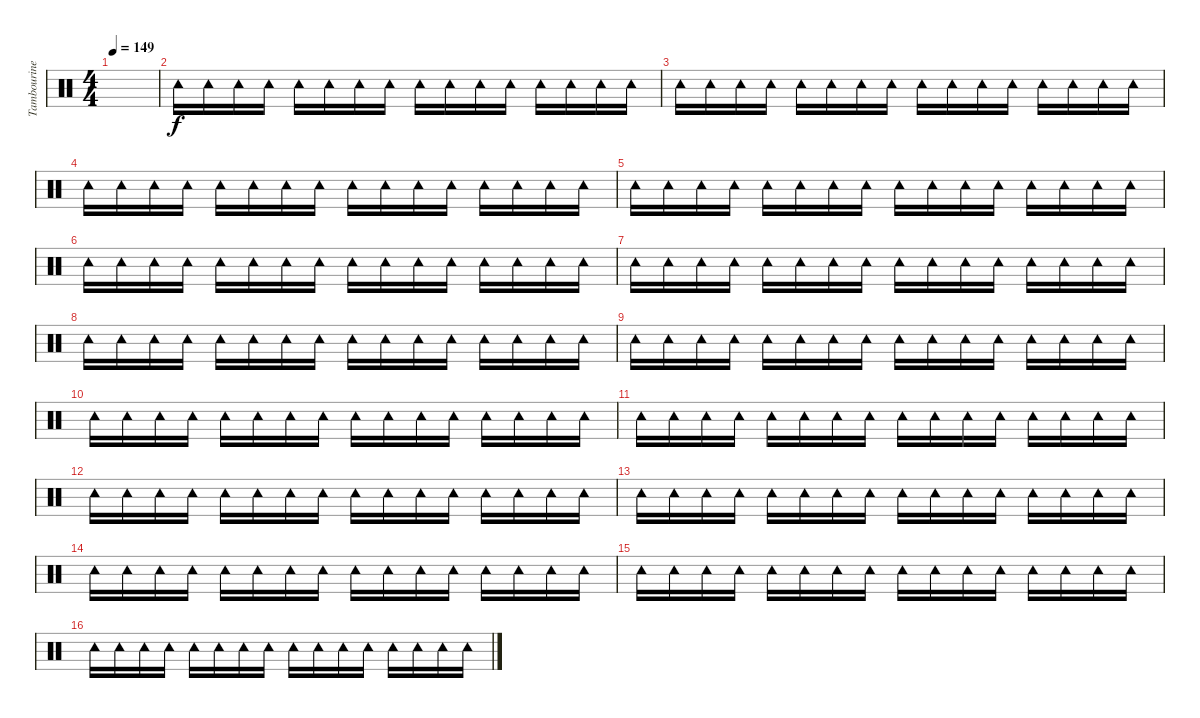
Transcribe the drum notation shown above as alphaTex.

\track ("Tambourine" "Tambourine") {instrument percussion}
\staff {score}
\articulation defaults
\ts (4 4)
\tempo 149
\clef neutral
\ks c
|
"Tambourine (hit)".16 "Tambourine (hit)".16 "Tambourine (hit)".16 "Tambourine (hit)".16 "Tambourine (hit)".16 "Tambourine (hit)".16 "Tambourine (hit)".16 "Tambourine (hit)".16 "Tambourine (hit)".16 "Tambourine (hit)".16 "Tambourine (hit)".16 "Tambourine (hit)".16 "Tambourine (hit)".16 "Tambourine (hit)".16 "Tambourine (hit)".16 "Tambourine (hit)".16 |
"Tambourine (hit)".16 "Tambourine (hit)".16 "Tambourine (hit)".16 "Tambourine (hit)".16 "Tambourine (hit)".16 "Tambourine (hit)".16 "Tambourine (hit)".16 "Tambourine (hit)".16 "Tambourine (hit)".16 "Tambourine (hit)".16 "Tambourine (hit)".16 "Tambourine (hit)".16 "Tambourine (hit)".16 "Tambourine (hit)".16 "Tambourine (hit)".16 "Tambourine (hit)".16 |
"Tambourine (hit)".16 "Tambourine (hit)".16 "Tambourine (hit)".16 "Tambourine (hit)".16 "Tambourine (hit)".16 "Tambourine (hit)".16 "Tambourine (hit)".16 "Tambourine (hit)".16 "Tambourine (hit)".16 "Tambourine (hit)".16 "Tambourine (hit)".16 "Tambourine (hit)".16 "Tambourine (hit)".16 "Tambourine (hit)".16 "Tambourine (hit)".16 "Tambourine (hit)".16 |
"Tambourine (hit)".16 "Tambourine (hit)".16 "Tambourine (hit)".16 "Tambourine (hit)".16 "Tambourine (hit)".16 "Tambourine (hit)".16 "Tambourine (hit)".16 "Tambourine (hit)".16 "Tambourine (hit)".16 "Tambourine (hit)".16 "Tambourine (hit)".16 "Tambourine (hit)".16 "Tambourine (hit)".16 "Tambourine (hit)".16 "Tambourine (hit)".16 "Tambourine (hit)".16 |
"Tambourine (hit)".16 "Tambourine (hit)".16 "Tambourine (hit)".16 "Tambourine (hit)".16 "Tambourine (hit)".16 "Tambourine (hit)".16 "Tambourine (hit)".16 "Tambourine (hit)".16 "Tambourine (hit)".16 "Tambourine (hit)".16 "Tambourine (hit)".16 "Tambourine (hit)".16 "Tambourine (hit)".16 "Tambourine (hit)".16 "Tambourine (hit)".16 "Tambourine (hit)".16 |
"Tambourine (hit)".16 "Tambourine (hit)".16 "Tambourine (hit)".16 "Tambourine (hit)".16 "Tambourine (hit)".16 "Tambourine (hit)".16 "Tambourine (hit)".16 "Tambourine (hit)".16 "Tambourine (hit)".16 "Tambourine (hit)".16 "Tambourine (hit)".16 "Tambourine (hit)".16 "Tambourine (hit)".16 "Tambourine (hit)".16 "Tambourine (hit)".16 "Tambourine (hit)".16 |
"Tambourine (hit)".16 "Tambourine (hit)".16 "Tambourine (hit)".16 "Tambourine (hit)".16 "Tambourine (hit)".16 "Tambourine (hit)".16 "Tambourine (hit)".16 "Tambourine (hit)".16 "Tambourine (hit)".16 "Tambourine (hit)".16 "Tambourine (hit)".16 "Tambourine (hit)".16 "Tambourine (hit)".16 "Tambourine (hit)".16 "Tambourine (hit)".16 "Tambourine (hit)".16 |
"Tambourine (hit)".16 "Tambourine (hit)".16 "Tambourine (hit)".16 "Tambourine (hit)".16 "Tambourine (hit)".16 "Tambourine (hit)".16 "Tambourine (hit)".16 "Tambourine (hit)".16 "Tambourine (hit)".16 "Tambourine (hit)".16 "Tambourine (hit)".16 "Tambourine (hit)".16 "Tambourine (hit)".16 "Tambourine (hit)".16 "Tambourine (hit)".16 "Tambourine (hit)".16 |
"Tambourine (hit)".16 "Tambourine (hit)".16 "Tambourine (hit)".16 "Tambourine (hit)".16 "Tambourine (hit)".16 "Tambourine (hit)".16 "Tambourine (hit)".16 "Tambourine (hit)".16 "Tambourine (hit)".16 "Tambourine (hit)".16 "Tambourine (hit)".16 "Tambourine (hit)".16 "Tambourine (hit)".16 "Tambourine (hit)".16 "Tambourine (hit)".16 "Tambourine (hit)".16 |
"Tambourine (hit)".16 "Tambourine (hit)".16 "Tambourine (hit)".16 "Tambourine (hit)".16 "Tambourine (hit)".16 "Tambourine (hit)".16 "Tambourine (hit)".16 "Tambourine (hit)".16 "Tambourine (hit)".16 "Tambourine (hit)".16 "Tambourine (hit)".16 "Tambourine (hit)".16 "Tambourine (hit)".16 "Tambourine (hit)".16 "Tambourine (hit)".16 "Tambourine (hit)".16 |
"Tambourine (hit)".16 "Tambourine (hit)".16 "Tambourine (hit)".16 "Tambourine (hit)".16 "Tambourine (hit)".16 "Tambourine (hit)".16 "Tambourine (hit)".16 "Tambourine (hit)".16 "Tambourine (hit)".16 "Tambourine (hit)".16 "Tambourine (hit)".16 "Tambourine (hit)".16 "Tambourine (hit)".16 "Tambourine (hit)".16 "Tambourine (hit)".16 "Tambourine (hit)".16 |
"Tambourine (hit)".16 "Tambourine (hit)".16 "Tambourine (hit)".16 "Tambourine (hit)".16 "Tambourine (hit)".16 "Tambourine (hit)".16 "Tambourine (hit)".16 "Tambourine (hit)".16 "Tambourine (hit)".16 "Tambourine (hit)".16 "Tambourine (hit)".16 "Tambourine (hit)".16 "Tambourine (hit)".16 "Tambourine (hit)".16 "Tambourine (hit)".16 "Tambourine (hit)".16 |
"Tambourine (hit)".16 "Tambourine (hit)".16 "Tambourine (hit)".16 "Tambourine (hit)".16 "Tambourine (hit)".16 "Tambourine (hit)".16 "Tambourine (hit)".16 "Tambourine (hit)".16 "Tambourine (hit)".16 "Tambourine (hit)".16 "Tambourine (hit)".16 "Tambourine (hit)".16 "Tambourine (hit)".16 "Tambourine (hit)".16 "Tambourine (hit)".16 "Tambourine (hit)".16 |
"Tambourine (hit)".16 "Tambourine (hit)".16 "Tambourine (hit)".16 "Tambourine (hit)".16 "Tambourine (hit)".16 "Tambourine (hit)".16 "Tambourine (hit)".16 "Tambourine (hit)".16 "Tambourine (hit)".16 "Tambourine (hit)".16 "Tambourine (hit)".16 "Tambourine (hit)".16 "Tambourine (hit)".16 "Tambourine (hit)".16 "Tambourine (hit)".16 "Tambourine (hit)".16 |
"Tambourine (hit)".16 "Tambourine (hit)".16 "Tambourine (hit)".16 "Tambourine (hit)".16 "Tambourine (hit)".16 "Tambourine (hit)".16 "Tambourine (hit)".16 "Tambourine (hit)".16 "Tambourine (hit)".16 "Tambourine (hit)".16 "Tambourine (hit)".16 "Tambourine (hit)".16 "Tambourine (hit)".16 "Tambourine (hit)".16 "Tambourine (hit)".16 "Tambourine (hit)".16
